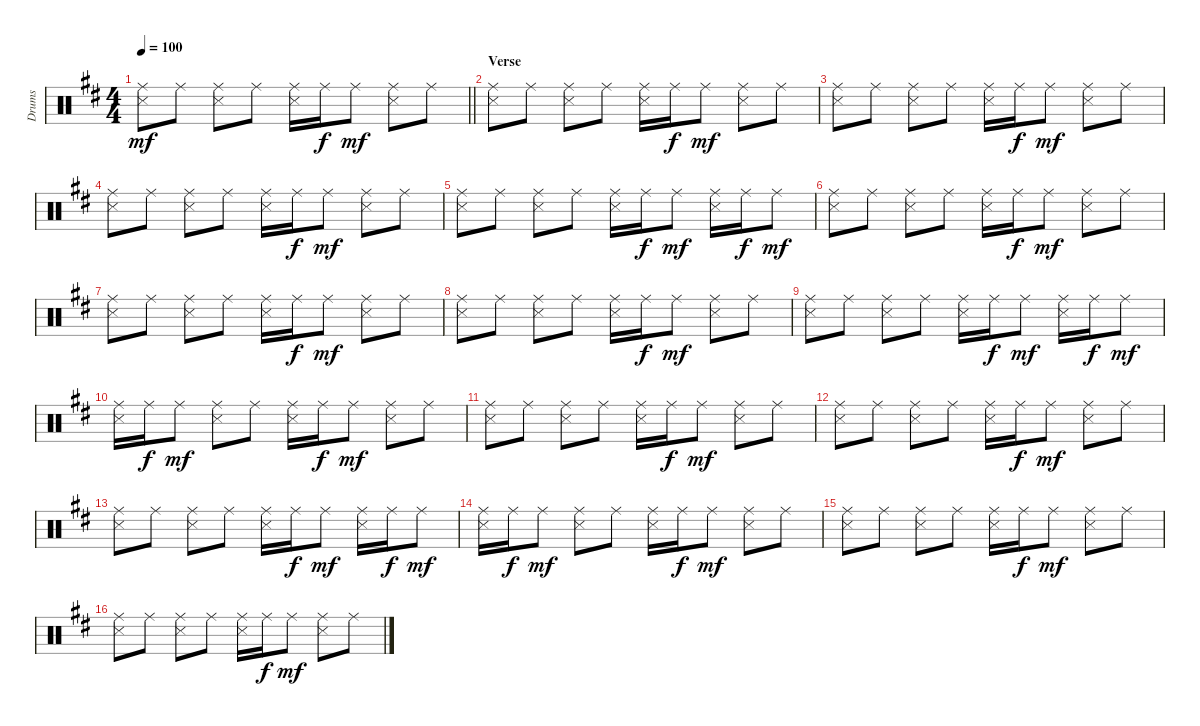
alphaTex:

\track ("Drums" "Drums") {instrument percussion}
\staff {score}
\articulation defaults
\ts (4 4)
\tempo 100
\clef neutral
\barLineRight lightlight
\ks d
("Ride (middle)" "Snare (side stick) 3").8{dy mf} "Ride (middle)".8 ("Ride (middle)" "Snare (side stick) 3").8 "Ride (middle)".8 ("Ride (middle)" "Snare (side stick) 3").16 "Ride (middle)".16{dy f} "Ride (middle)".8{dy mf} ("Ride (middle)" "Snare (side stick) 3").8 "Ride (middle)".8 |
\section ("" "Verse")
("Ride (middle)" "Snare (side stick) 3").8 "Ride (middle)".8 ("Ride (middle)" "Snare (side stick) 3").8 "Ride (middle)".8 ("Ride (middle)" "Snare (side stick) 3").16 "Ride (middle)".16{dy f} "Ride (middle)".8{dy mf} ("Ride (middle)" "Snare (side stick) 3").8 "Ride (middle)".8 |
("Ride (middle)" "Snare (side stick) 3").8 "Ride (middle)".8 ("Ride (middle)" "Snare (side stick) 3").8 "Ride (middle)".8 ("Ride (middle)" "Snare (side stick) 3").16 "Ride (middle)".16{dy f} "Ride (middle)".8{dy mf} ("Ride (middle)" "Snare (side stick) 3").8 "Ride (middle)".8 |
("Ride (middle)" "Snare (side stick) 3").8 "Ride (middle)".8 ("Ride (middle)" "Snare (side stick) 3").8 "Ride (middle)".8 ("Ride (middle)" "Snare (side stick) 3").16 "Ride (middle)".16{dy f} "Ride (middle)".8{dy mf} ("Ride (middle)" "Snare (side stick) 3").8 "Ride (middle)".8 |
("Ride (middle)" "Snare (side stick) 3").8 "Ride (middle)".8 ("Ride (middle)" "Snare (side stick) 3").8 "Ride (middle)".8 ("Ride (middle)" "Snare (side stick) 3").16 "Ride (middle)".16{dy f} "Ride (middle)".8{dy mf} ("Ride (middle)" "Snare (side stick) 3").16 "Ride (middle)".16{dy f} "Ride (middle)".8{dy mf} |
("Ride (middle)" "Snare (side stick) 3").8 "Ride (middle)".8 ("Ride (middle)" "Snare (side stick) 3").8 "Ride (middle)".8 ("Ride (middle)" "Snare (side stick) 3").16 "Ride (middle)".16{dy f} "Ride (middle)".8{dy mf} ("Ride (middle)" "Snare (side stick) 3").8 "Ride (middle)".8 |
("Ride (middle)" "Snare (side stick) 3").8 "Ride (middle)".8 ("Ride (middle)" "Snare (side stick) 3").8 "Ride (middle)".8 ("Ride (middle)" "Snare (side stick) 3").16 "Ride (middle)".16{dy f} "Ride (middle)".8{dy mf} ("Ride (middle)" "Snare (side stick) 3").8 "Ride (middle)".8 |
("Ride (middle)" "Snare (side stick) 3").8 "Ride (middle)".8 ("Ride (middle)" "Snare (side stick) 3").8 "Ride (middle)".8 ("Ride (middle)" "Snare (side stick) 3").16 "Ride (middle)".16{dy f} "Ride (middle)".8{dy mf} ("Ride (middle)" "Snare (side stick) 3").8 "Ride (middle)".8 |
("Ride (middle)" "Snare (side stick) 3").8 "Ride (middle)".8 ("Ride (middle)" "Snare (side stick) 3").8 "Ride (middle)".8 ("Ride (middle)" "Snare (side stick) 3").16 "Ride (middle)".16{dy f} "Ride (middle)".8{dy mf} ("Ride (middle)" "Snare (side stick) 3").16 "Ride (middle)".16{dy f} "Ride (middle)".8{dy mf} |
("Ride (middle)" "Snare (side stick) 3").16 "Ride (middle)".16{dy f} "Ride (middle)".8{dy mf} ("Ride (middle)" "Snare (side stick) 3").8 "Ride (middle)".8 ("Ride (middle)" "Snare (side stick) 3").16 "Ride (middle)".16{dy f} "Ride (middle)".8{dy mf} ("Ride (middle)" "Snare (side stick) 3").8 "Ride (middle)".8 |
("Ride (middle)" "Snare (side stick) 3").8 "Ride (middle)".8 ("Ride (middle)" "Snare (side stick) 3").8 "Ride (middle)".8 ("Ride (middle)" "Snare (side stick) 3").16 "Ride (middle)".16{dy f} "Ride (middle)".8{dy mf} ("Ride (middle)" "Snare (side stick) 3").8 "Ride (middle)".8 |
("Ride (middle)" "Snare (side stick) 3").8 "Ride (middle)".8 ("Ride (middle)" "Snare (side stick) 3").8 "Ride (middle)".8 ("Ride (middle)" "Snare (side stick) 3").16 "Ride (middle)".16{dy f} "Ride (middle)".8{dy mf} ("Ride (middle)" "Snare (side stick) 3").8 "Ride (middle)".8 |
("Ride (middle)" "Snare (side stick) 3").8 "Ride (middle)".8 ("Ride (middle)" "Snare (side stick) 3").8 "Ride (middle)".8 ("Ride (middle)" "Snare (side stick) 3").16 "Ride (middle)".16{dy f} "Ride (middle)".8{dy mf} ("Ride (middle)" "Snare (side stick) 3").16 "Ride (middle)".16{dy f} "Ride (middle)".8{dy mf} |
("Ride (middle)" "Snare (side stick) 3").16 "Ride (middle)".16{dy f} "Ride (middle)".8{dy mf} ("Ride (middle)" "Snare (side stick) 3").8 "Ride (middle)".8 ("Ride (middle)" "Snare (side stick) 3").16 "Ride (middle)".16{dy f} "Ride (middle)".8{dy mf} ("Ride (middle)" "Snare (side stick) 3").8 "Ride (middle)".8 |
("Ride (middle)" "Snare (side stick) 3").8 "Ride (middle)".8 ("Ride (middle)" "Snare (side stick) 3").8 "Ride (middle)".8 ("Ride (middle)" "Snare (side stick) 3").16 "Ride (middle)".16{dy f} "Ride (middle)".8{dy mf} ("Ride (middle)" "Snare (side stick) 3").8 "Ride (middle)".8 |
("Ride (middle)" "Snare (side stick) 3").8 "Ride (middle)".8 ("Ride (middle)" "Snare (side stick) 3").8 "Ride (middle)".8 ("Ride (middle)" "Snare (side stick) 3").16 "Ride (middle)".16{dy f} "Ride (middle)".8{dy mf} ("Ride (middle)" "Snare (side stick) 3").8 "Ride (middle)".8
